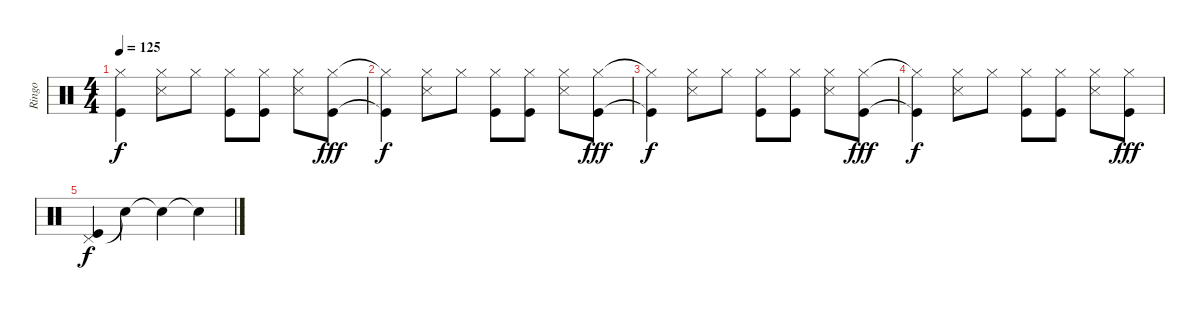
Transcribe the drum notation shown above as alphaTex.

\track ("Ringo" "Ringo") {instrument percussion}
\staff {score}
\articulation defaults
\ts (4 4)
\tempo 125
\clef neutral
\ks c
("Hi-Hat (closed)" "Kick (hit)").4{dy f} ("Hi-Hat (closed)" "Snare (side stick) 3").8 "Hi-Hat (closed)".8 ("Hi-Hat (closed)" "Kick (hit)").8 ("Hi-Hat (closed)" "Kick (hit)").8 ("Hi-Hat (closed)" "Snare (side stick) 3").8 ("Hi-Hat (closed)" "Kick (hit)").8{dy fff} |
("Hi-Hat (closed)"{t} "Kick (hit)"{t}).4{dy f} ("Hi-Hat (closed)" "Snare (side stick) 3").8 "Hi-Hat (closed)".8 ("Hi-Hat (closed)" "Kick (hit)").8 ("Hi-Hat (closed)" "Kick (hit)").8 ("Hi-Hat (closed)" "Snare (side stick) 3").8 ("Hi-Hat (closed)" "Kick (hit)").8{dy fff} |
("Hi-Hat (closed)"{t} "Kick (hit)"{t}).4{dy f} ("Hi-Hat (closed)" "Snare (side stick) 3").8 "Hi-Hat (closed)".8 ("Hi-Hat (closed)" "Kick (hit)").8 ("Hi-Hat (closed)" "Kick (hit)").8 ("Hi-Hat (closed)" "Snare (side stick) 3").8 ("Hi-Hat (closed)" "Kick (hit)").8{dy fff} |
("Hi-Hat (closed)"{t} "Kick (hit)"{t}).4{dy f} ("Hi-Hat (closed)" "Snare (side stick) 3").8 "Hi-Hat (closed)".8 ("Hi-Hat (closed)" "Kick (hit)").8 ("Hi-Hat (closed)" "Kick (hit)").8 ("Hi-Hat (closed)" "Snare (side stick) 3").8 ("Hi-Hat (closed)" "Kick (hit)").8{dy fff} |
("Pedal Hi-Hat (hit)" "Kick (hit)").4{dy f} "Snare (hit)"{t}.4 "Snare (hit)"{t}.4 "Snare (hit)"{t}.4
